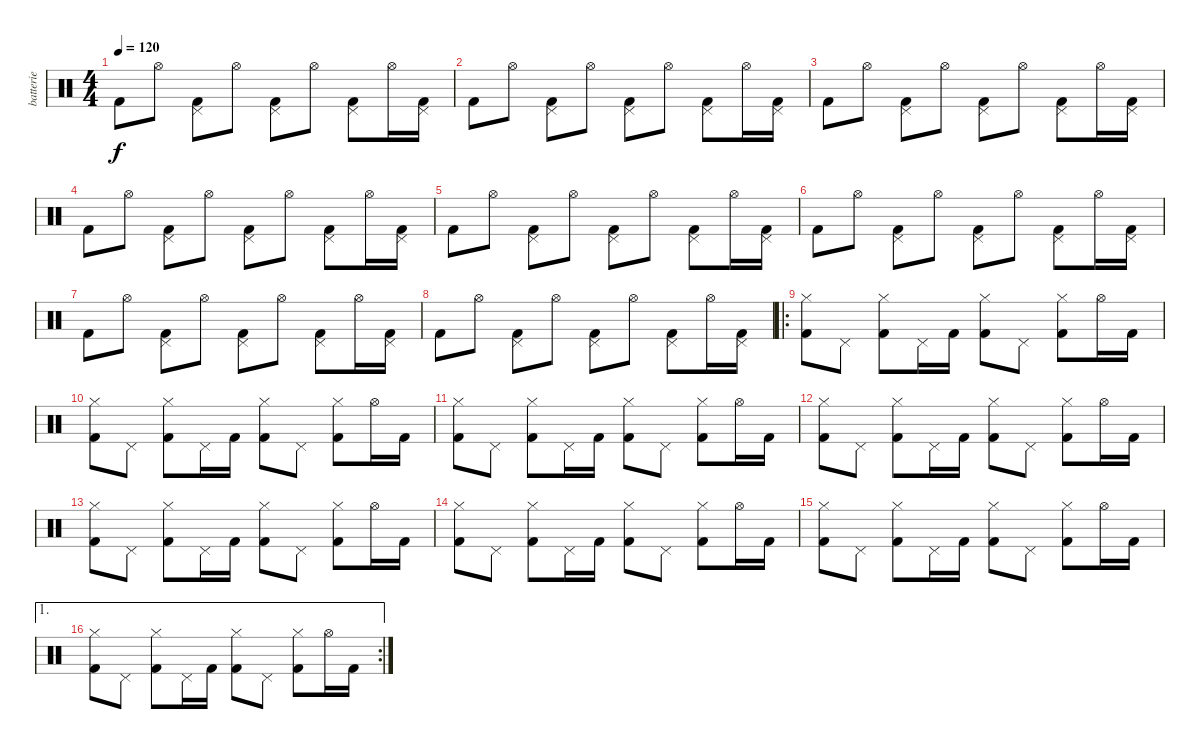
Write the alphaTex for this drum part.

\track ("batterie" "batterie") {instrument percussion}
\staff {score}
\articulation defaults
\ts (4 4)
\tempo 120
\clef neutral
\ks c "Kick (hit) 2".8{dy f} "Hi-Hat (open)".8
("Kick (hit) 2" "Pedal Hi-Hat (hit)").8 "Hi-Hat (open)".8 ("Kick (hit) 2" "Pedal Hi-Hat (hit)").8 "Hi-Hat (open)".8 ("Kick (hit) 2" "Pedal Hi-Hat (hit)").8 "Hi-Hat (open)".16 ("Kick (hit) 2" "Pedal Hi-Hat (hit)").16 |
"Kick (hit) 2".8 "Hi-Hat (open)".8 ("Kick (hit) 2" "Pedal Hi-Hat (hit)").8 "Hi-Hat (open)".8 ("Kick (hit) 2" "Pedal Hi-Hat (hit)").8 "Hi-Hat (open)".8 ("Kick (hit) 2" "Pedal Hi-Hat (hit)").8 "Hi-Hat (open)".16 ("Kick (hit) 2" "Pedal Hi-Hat (hit)").16 |
"Kick (hit) 2".8 "Hi-Hat (open)".8 ("Kick (hit) 2" "Pedal Hi-Hat (hit)").8 "Hi-Hat (open)".8 ("Kick (hit) 2" "Pedal Hi-Hat (hit)").8 "Hi-Hat (open)".8 ("Kick (hit) 2" "Pedal Hi-Hat (hit)").8 "Hi-Hat (open)".16 ("Kick (hit) 2" "Pedal Hi-Hat (hit)").16 |
"Kick (hit) 2".8 "Hi-Hat (open)".8 ("Kick (hit) 2" "Pedal Hi-Hat (hit)").8 "Hi-Hat (open)".8 ("Kick (hit) 2" "Pedal Hi-Hat (hit)").8 "Hi-Hat (open)".8 ("Kick (hit) 2" "Pedal Hi-Hat (hit)").8 "Hi-Hat (open)".16 ("Kick (hit) 2" "Pedal Hi-Hat (hit)").16 |
"Kick (hit) 2".8 "Hi-Hat (open)".8 ("Kick (hit) 2" "Pedal Hi-Hat (hit)").8 "Hi-Hat (open)".8 ("Kick (hit) 2" "Pedal Hi-Hat (hit)").8 "Hi-Hat (open)".8 ("Kick (hit) 2" "Pedal Hi-Hat (hit)").8 "Hi-Hat (open)".16 ("Kick (hit) 2" "Pedal Hi-Hat (hit)").16 |
"Kick (hit) 2".8 "Hi-Hat (open)".8 ("Kick (hit) 2" "Pedal Hi-Hat (hit)").8 "Hi-Hat (open)".8 ("Kick (hit) 2" "Pedal Hi-Hat (hit)").8 "Hi-Hat (open)".8 ("Kick (hit) 2" "Pedal Hi-Hat (hit)").8 "Hi-Hat (open)".16 ("Kick (hit) 2" "Pedal Hi-Hat (hit)").16 |
"Kick (hit) 2".8 "Hi-Hat (open)".8 ("Kick (hit) 2" "Pedal Hi-Hat (hit)").8 "Hi-Hat (open)".8 ("Kick (hit) 2" "Pedal Hi-Hat (hit)").8 "Hi-Hat (open)".8 ("Kick (hit) 2" "Pedal Hi-Hat (hit)").8 "Hi-Hat (open)".16 ("Kick (hit) 2" "Pedal Hi-Hat (hit)").16 |
"Kick (hit) 2".8 "Hi-Hat (open)".8 ("Kick (hit) 2" "Pedal Hi-Hat (hit)").8 "Hi-Hat (open)".8 ("Kick (hit) 2" "Pedal Hi-Hat (hit)").8 "Hi-Hat (open)".8 ("Kick (hit) 2" "Pedal Hi-Hat (hit)").8 "Hi-Hat (open)".16 ("Kick (hit) 2" "Pedal Hi-Hat (hit)").16 |
\ro
("Kick (hit) 2" "Hi-Hat (closed)").8 "Pedal Hi-Hat (hit)".8 ("Kick (hit) 2" "Hi-Hat (closed)").8 "Pedal Hi-Hat (hit)".16 "Kick (hit) 2".16 ("Kick (hit) 2" "Hi-Hat (closed)").8 "Pedal Hi-Hat (hit)".8 ("Kick (hit) 2" "Hi-Hat (closed)").8 "Hi-Hat (open)".16 "Kick (hit) 2".16 |
("Kick (hit) 2" "Hi-Hat (closed)").8 "Pedal Hi-Hat (hit)".8 ("Kick (hit) 2" "Hi-Hat (closed)").8 "Pedal Hi-Hat (hit)".16 "Kick (hit) 2".16 ("Kick (hit) 2" "Hi-Hat (closed)").8 "Pedal Hi-Hat (hit)".8 ("Kick (hit) 2" "Hi-Hat (closed)").8 "Hi-Hat (open)".16 "Kick (hit) 2".16 |
("Kick (hit) 2" "Hi-Hat (closed)").8 "Pedal Hi-Hat (hit)".8 ("Kick (hit) 2" "Hi-Hat (closed)").8 "Pedal Hi-Hat (hit)".16 "Kick (hit) 2".16 ("Kick (hit) 2" "Hi-Hat (closed)").8 "Pedal Hi-Hat (hit)".8 ("Kick (hit) 2" "Hi-Hat (closed)").8 "Hi-Hat (open)".16 "Kick (hit) 2".16 |
("Kick (hit) 2" "Hi-Hat (closed)").8 "Pedal Hi-Hat (hit)".8 ("Kick (hit) 2" "Hi-Hat (closed)").8 "Pedal Hi-Hat (hit)".16 "Kick (hit) 2".16 ("Kick (hit) 2" "Hi-Hat (closed)").8 "Pedal Hi-Hat (hit)".8 ("Kick (hit) 2" "Hi-Hat (closed)").8 "Hi-Hat (open)".16 "Kick (hit) 2".16 |
("Kick (hit) 2" "Hi-Hat (closed)").8 "Pedal Hi-Hat (hit)".8 ("Kick (hit) 2" "Hi-Hat (closed)").8 "Pedal Hi-Hat (hit)".16 "Kick (hit) 2".16 ("Kick (hit) 2" "Hi-Hat (closed)").8 "Pedal Hi-Hat (hit)".8 ("Kick (hit) 2" "Hi-Hat (closed)").8 "Hi-Hat (open)".16 "Kick (hit) 2".16 |
("Kick (hit) 2" "Hi-Hat (closed)").8 "Pedal Hi-Hat (hit)".8 ("Kick (hit) 2" "Hi-Hat (closed)").8 "Pedal Hi-Hat (hit)".16 "Kick (hit) 2".16 ("Kick (hit) 2" "Hi-Hat (closed)").8 "Pedal Hi-Hat (hit)".8 ("Kick (hit) 2" "Hi-Hat (closed)").8 "Hi-Hat (open)".16 "Kick (hit) 2".16 |
("Kick (hit) 2" "Hi-Hat (closed)").8 "Pedal Hi-Hat (hit)".8 ("Kick (hit) 2" "Hi-Hat (closed)").8 "Pedal Hi-Hat (hit)".16 "Kick (hit) 2".16 ("Kick (hit) 2" "Hi-Hat (closed)").8 "Pedal Hi-Hat (hit)".8 ("Kick (hit) 2" "Hi-Hat (closed)").8 "Hi-Hat (open)".16 "Kick (hit) 2".16 |
\ae 1
\rc 2
("Kick (hit) 2" "Hi-Hat (closed)").8 "Pedal Hi-Hat (hit)".8 ("Kick (hit) 2" "Hi-Hat (closed)").8 "Pedal Hi-Hat (hit)".16 "Kick (hit) 2".16 ("Kick (hit) 2" "Hi-Hat (closed)").8 "Pedal Hi-Hat (hit)".8 ("Kick (hit) 2" "Hi-Hat (closed)").8 "Hi-Hat (open)".16 "Kick (hit) 2".16
